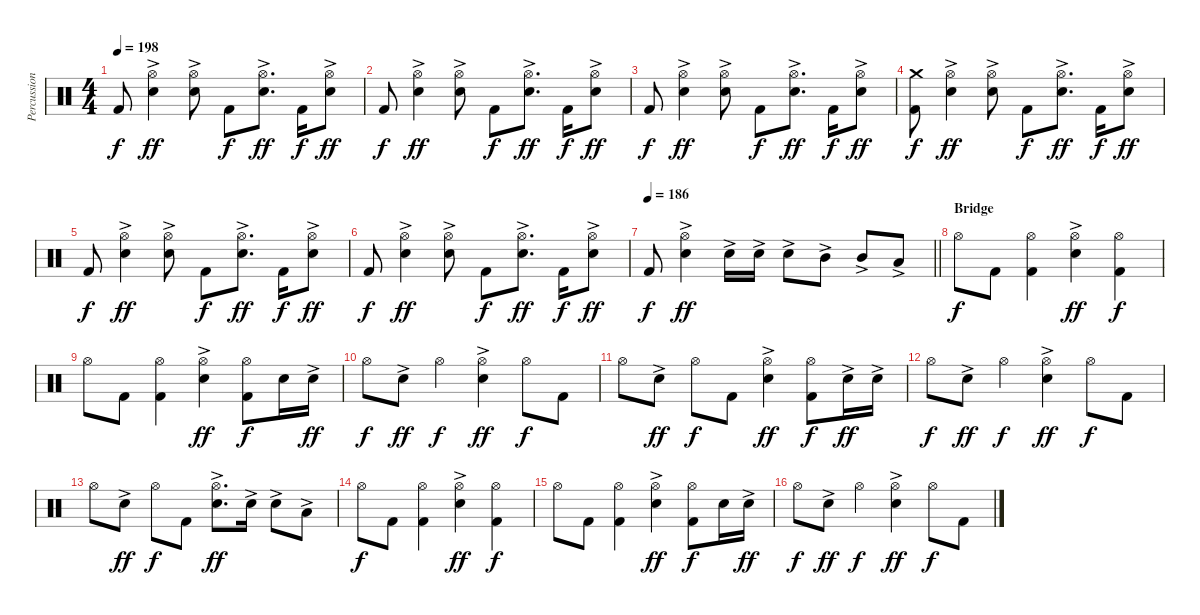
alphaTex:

\track ("Percussion" "Percussion") {instrument percussion}
\staff {score}
\articulation defaults
\ts (4 4)
\tempo 198
\clef neutral
\ks c "Kick (hit) 2".8{dy f}
("Hi-Hat (open)" "Electric Snare (hit)"{ac}).4{dy ff} ("Hi-Hat (open)" "Electric Snare (hit)"{ac}).8 "Kick (hit) 2".8{dy f} ("Hi-Hat (open)" "Electric Snare (hit)"{ac}).8{d dy ff} "Kick (hit) 2".16{dy f} ("Hi-Hat (open)" "Electric Snare (hit)"{ac}).8{dy ff} |
"Kick (hit) 2".8{dy f} ("Hi-Hat (open)" "Electric Snare (hit)"{ac}).4{dy ff} ("Hi-Hat (open)" "Electric Snare (hit)"{ac}).8 "Kick (hit) 2".8{dy f} ("Hi-Hat (open)" "Electric Snare (hit)"{ac}).8{d dy ff} "Kick (hit) 2".16{dy f} ("Hi-Hat (open)" "Electric Snare (hit)"{ac}).8{dy ff} |
"Kick (hit) 2".8{dy f} ("Hi-Hat (open)" "Electric Snare (hit)"{ac}).4{dy ff} ("Hi-Hat (open)" "Electric Snare (hit)"{ac}).8 "Kick (hit) 2".8{dy f} ("Hi-Hat (open)" "Electric Snare (hit)"{ac}).8{d dy ff} "Kick (hit) 2".16{dy f} ("Hi-Hat (open)" "Electric Snare (hit)"{ac}).8{dy ff} |
("Crash medium (hit)" "Kick (hit) 2").8{dy f} ("Hi-Hat (open)" "Electric Snare (hit)"{ac}).4{dy ff} ("Hi-Hat (open)" "Electric Snare (hit)"{ac}).8 "Kick (hit) 2".8{dy f} ("Hi-Hat (open)" "Electric Snare (hit)"{ac}).8{d dy ff} "Kick (hit) 2".16{dy f} ("Hi-Hat (open)" "Electric Snare (hit)"{ac}).8{dy ff} |
"Kick (hit) 2".8{dy f} ("Hi-Hat (open)" "Electric Snare (hit)"{ac}).4{dy ff} ("Hi-Hat (open)" "Electric Snare (hit)"{ac}).8 "Kick (hit) 2".8{dy f} ("Hi-Hat (open)" "Electric Snare (hit)"{ac}).8{d dy ff} "Kick (hit) 2".16{dy f} ("Hi-Hat (open)" "Electric Snare (hit)"{ac}).8{dy ff} |
"Kick (hit) 2".8{dy f} ("Hi-Hat (open)" "Electric Snare (hit)"{ac}).4{dy ff} ("Hi-Hat (open)" "Electric Snare (hit)"{ac}).8 "Kick (hit) 2".8{dy f} ("Hi-Hat (open)" "Electric Snare (hit)"{ac}).8{d dy ff} "Kick (hit) 2".16{dy f} ("Hi-Hat (open)" "Electric Snare (hit)"{ac}).8{dy ff} |
\tempo 186
\barLineRight lightlight "Kick (hit) 2".8{dy f}
("Hi-Hat (open)" "Electric Snare (hit)"{ac}).4{dy ff} "Electric Snare (hit)"{ac}.16 "Electric Snare (hit)"{ac}.16 "Electric Snare (hit)"{ac}.8 "Mid Tom (hit)"{ac}.8 "Mid Tom (hit)"{ac}.8 "Low Tom (hit)"{ac}.8 |
\section ("" "Bridge")
"Hi-Hat (open)".8{dy f} "Kick (hit) 2".8 ("Hi-Hat (open)" "Kick (hit) 2").4 ("Hi-Hat (open)" "Electric Snare (hit)"{ac}).4{dy ff} ("Hi-Hat (open)" "Kick (hit) 2").4{dy f} |
"Hi-Hat (open)".8 "Kick (hit) 2".8 ("Hi-Hat (open)" "Kick (hit) 2").4 ("Hi-Hat (open)" "Electric Snare (hit)"{ac}).4{dy ff} ("Hi-Hat (open)" "Kick (hit) 2").8{dy f} "Electric Snare (hit)".16 "Electric Snare (hit)"{ac}.16{dy ff} |
"Hi-Hat (open)".8{dy f} "Electric Snare (hit)"{ac}.8{dy ff} "Hi-Hat (open)".4{dy f} ("Hi-Hat (open)" "Electric Snare (hit)"{ac}).4{dy ff} "Hi-Hat (open)".8{dy f} "Kick (hit) 2".8 |
"Hi-Hat (open)".8 "Electric Snare (hit)"{ac}.8{dy ff} "Hi-Hat (open)".8{dy f} "Kick (hit) 2".8 ("Hi-Hat (open)" "Electric Snare (hit)"{ac}).4{dy ff} ("Hi-Hat (open)" "Kick (hit) 2").8{dy f} "Electric Snare (hit)"{ac}.16{dy ff} "Electric Snare (hit)"{ac}.16 |
"Hi-Hat (open)".8{dy f} "Electric Snare (hit)"{ac}.8{dy ff} "Hi-Hat (open)".4{dy f} ("Hi-Hat (open)" "Electric Snare (hit)"{ac}).4{dy ff} "Hi-Hat (open)".8{dy f} "Kick (hit) 2".8 |
"Hi-Hat (open)".8 "Electric Snare (hit)"{ac}.8{dy ff} "Hi-Hat (open)".8{dy f} "Kick (hit) 2".8 ("Hi-Hat (open)" "Electric Snare (hit)"{ac}).8{d dy ff} "Electric Snare (hit)"{ac}.16 "Electric Snare (hit)"{ac}.8 "Low Tom (hit)"{ac}.8 |
"Hi-Hat (open)".8{dy f} "Kick (hit) 2".8 ("Hi-Hat (open)" "Kick (hit) 2").4 ("Hi-Hat (open)" "Electric Snare (hit)"{ac}).4{dy ff} ("Hi-Hat (open)" "Kick (hit) 2").4{dy f} |
"Hi-Hat (open)".8 "Kick (hit) 2".8 ("Hi-Hat (open)" "Kick (hit) 2").4 ("Hi-Hat (open)" "Electric Snare (hit)"{ac}).4{dy ff} ("Hi-Hat (open)" "Kick (hit) 2").8{dy f} "Electric Snare (hit)".16 "Electric Snare (hit)"{ac}.16{dy ff} |
"Hi-Hat (open)".8{dy f} "Electric Snare (hit)"{ac}.8{dy ff} "Hi-Hat (open)".4{dy f} ("Hi-Hat (open)" "Electric Snare (hit)"{ac}).4{dy ff} "Hi-Hat (open)".8{dy f} "Kick (hit) 2".8
